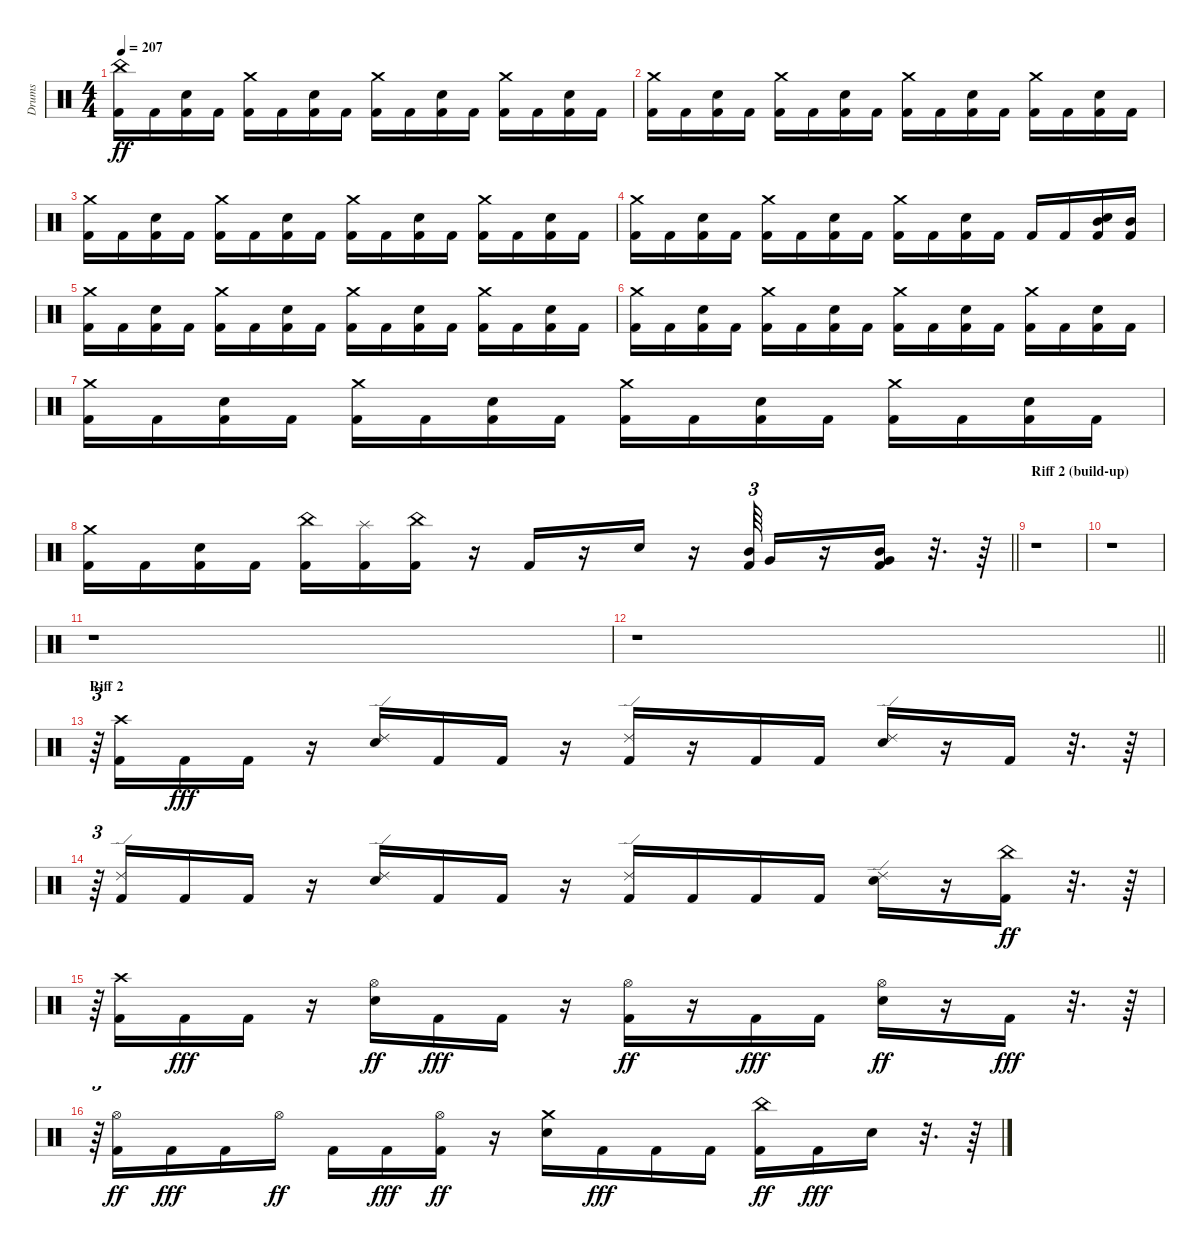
\track ("Drums" "Drums") {instrument percussion}
\staff {score}
\articulation defaults
\ts (4 4)
\tempo 207
\clef neutral
\ks c
("Kick (hit) 2" "China (hit)").16{dy ff} "Kick (hit) 2".16 ("Kick (hit) 2" "Snare (hit) 2").16 "Kick (hit) 2".16 ("Kick (hit) 2" "Crash medium (hit)").16 "Kick (hit) 2".16 ("Kick (hit) 2" "Snare (hit) 2").16 "Kick (hit) 2".16 ("Kick (hit) 2" "Crash medium (hit)").16 "Kick (hit) 2".16 ("Kick (hit) 2" "Snare (hit) 2").16 "Kick (hit) 2".16 ("Kick (hit) 2" "Crash medium (hit)").16 "Kick (hit) 2".16 ("Kick (hit) 2" "Snare (hit) 2").16 "Kick (hit) 2".16 |
("Kick (hit) 2" "Crash medium (hit)").16 "Kick (hit) 2".16 ("Kick (hit) 2" "Snare (hit) 2").16 "Kick (hit) 2".16 ("Kick (hit) 2" "Crash medium (hit)").16 "Kick (hit) 2".16 ("Kick (hit) 2" "Snare (hit) 2").16 "Kick (hit) 2".16 ("Kick (hit) 2" "Crash medium (hit)").16 "Kick (hit) 2".16 ("Kick (hit) 2" "Snare (hit) 2").16 "Kick (hit) 2".16 ("Kick (hit) 2" "Crash medium (hit)").16 "Kick (hit) 2".16 ("Kick (hit) 2" "Snare (hit) 2").16 "Kick (hit) 2".16 |
("Kick (hit) 2" "Crash medium (hit)").16 "Kick (hit) 2".16 ("Kick (hit) 2" "Snare (hit) 2").16 "Kick (hit) 2".16 ("Kick (hit) 2" "Crash medium (hit)").16 "Kick (hit) 2".16 ("Kick (hit) 2" "Snare (hit) 2").16 "Kick (hit) 2".16 ("Kick (hit) 2" "Crash medium (hit)").16 "Kick (hit) 2".16 ("Kick (hit) 2" "Snare (hit) 2").16 "Kick (hit) 2".16 ("Kick (hit) 2" "Crash medium (hit)").16 "Kick (hit) 2".16 ("Kick (hit) 2" "Snare (hit) 2").16 "Kick (hit) 2".16 |
("Kick (hit) 2" "Crash medium (hit)").16 "Kick (hit) 2".16 ("Kick (hit) 2" "Snare (hit) 2").16 "Kick (hit) 2".16 ("Kick (hit) 2" "Crash medium (hit)").16 "Kick (hit) 2".16 ("Kick (hit) 2" "Snare (hit) 2").16 "Kick (hit) 2".16 ("Kick (hit) 2" "Crash medium (hit)").16 "Kick (hit) 2".16 ("Kick (hit) 2" "Snare (hit) 2").16 "Kick (hit) 2".16 "Kick (hit) 2".16 "Kick (hit) 2".16 ("Kick (hit) 2" "Snare (hit) 2" "Mid Tom (hit)").16 ("Kick (hit) 2" "Mid Tom (hit)").16 |
("Kick (hit) 2" "Crash medium (hit)").16 "Kick (hit) 2".16 ("Kick (hit) 2" "Snare (hit) 2").16 "Kick (hit) 2".16 ("Kick (hit) 2" "Crash medium (hit)").16 "Kick (hit) 2".16 ("Kick (hit) 2" "Snare (hit) 2").16 "Kick (hit) 2".16 ("Kick (hit) 2" "Crash medium (hit)").16 "Kick (hit) 2".16 ("Kick (hit) 2" "Snare (hit) 2").16 "Kick (hit) 2".16 ("Kick (hit) 2" "Crash medium (hit)").16 "Kick (hit) 2".16 ("Kick (hit) 2" "Snare (hit) 2").16 "Kick (hit) 2".16 |
("Kick (hit) 2" "Crash medium (hit)").16 "Kick (hit) 2".16 ("Kick (hit) 2" "Snare (hit) 2").16 "Kick (hit) 2".16 ("Kick (hit) 2" "Crash medium (hit)").16 "Kick (hit) 2".16 ("Kick (hit) 2" "Snare (hit) 2").16 "Kick (hit) 2".16 ("Kick (hit) 2" "Crash medium (hit)").16 "Kick (hit) 2".16 ("Kick (hit) 2" "Snare (hit) 2").16 "Kick (hit) 2".16 ("Kick (hit) 2" "Crash medium (hit)").16 "Kick (hit) 2".16 ("Kick (hit) 2" "Snare (hit) 2").16 "Kick (hit) 2".16 |
("Kick (hit) 2" "Crash medium (hit)").16 "Kick (hit) 2".16 ("Kick (hit) 2" "Snare (hit) 2").16 "Kick (hit) 2".16 ("Kick (hit) 2" "Crash medium (hit)").16 "Kick (hit) 2".16 ("Kick (hit) 2" "Snare (hit) 2").16 "Kick (hit) 2".16 ("Kick (hit) 2" "Crash medium (hit)").16 "Kick (hit) 2".16 ("Kick (hit) 2" "Snare (hit) 2").16 "Kick (hit) 2".16 ("Kick (hit) 2" "Crash medium (hit)").16 "Kick (hit) 2".16 ("Kick (hit) 2" "Snare (hit) 2").16 "Kick (hit) 2".16 |
\barLineRight lightlight
("Kick (hit) 2" "Crash medium (hit)").16 "Kick (hit) 2".16 ("Kick (hit) 2" "Snare (hit) 2").16 "Kick (hit) 2".16 ("Kick (hit) 2" "China (hit)").16 ("Kick (hit) 2" "Splash (hit)").16 ("Kick (hit) 2" "China (hit)").16 r.16 "Kick (hit) 2".16 r.16 "Snare (hit) 2".16 r.16 ("Kick (hit) 2" "Mid Tom (hit)").64{tu (3 2)} "Very Low Tom (hit)".16 r.16 ("Kick (hit) 2" "Mid Tom (hit)" "Very Low Tom (hit)").16 r.32{d} r.64 |
\section ("" "Riff 2 (build-up)")
r.1 |
r.1 |
r.1 |
\barLineRight lightlight
r.1 |
\section ("" "Riff 2")
r.64{tu (3 2)} ("Kick (hit) 2" "Crash high (hit)").16 "Kick (hit) 2".16{dy fff} "Kick (hit) 2".16 r.16 ("Snare (hit) 2" "Ride (edge) 2").16 "Kick (hit) 2".16 "Kick (hit) 2".16 r.16 ("Kick (hit) 2" "Ride (edge) 2").16 r.16 "Kick (hit) 2".16 "Kick (hit) 2".16 ("Snare (hit) 2" "Ride (edge) 2").16 r.16 "Kick (hit) 2".16 r.32{d} r.64 |
r.64{tu (3 2)} ("Kick (hit) 2" "Ride (edge) 2").16 "Kick (hit) 2".16 "Kick (hit) 2".16 r.16 ("Snare (hit) 2" "Ride (edge) 2").16 "Kick (hit) 2".16 "Kick (hit) 2".16 r.16 ("Kick (hit) 2" "Ride (edge) 2").16 "Kick (hit) 2".16 "Kick (hit) 2".16 "Kick (hit) 2".16 ("Snare (hit) 2" "Ride (edge) 2").16 r.16 ("Kick (hit) 2" "China (hit)").16{dy ff} r.32{d} r.64 |
r.64{tu (3 2)} ("Kick (hit) 2" "Crash high (hit)").16 "Kick (hit) 2".16{dy fff} "Kick (hit) 2".16 r.16 ("Snare (hit) 2" "Hi-Hat (open)").16{dy ff} "Kick (hit) 2".16{dy fff} "Kick (hit) 2".16 r.16 ("Kick (hit) 2" "Hi-Hat (open)").16{dy ff} r.16 "Kick (hit) 2".16{dy fff} "Kick (hit) 2".16 ("Snare (hit) 2" "Hi-Hat (open)").16{dy ff} r.16 "Kick (hit) 2".16{dy fff} r.32{d} r.64 |
r.64{tu (3 2)} ("Kick (hit) 2" "Hi-Hat (open)").16{dy ff} "Kick (hit) 2".16{dy fff} "Kick (hit) 2".16 "Hi-Hat (open)".16{dy ff} "Kick (hit) 2".16 "Kick (hit) 2".16{dy fff} ("Kick (hit) 2" "Hi-Hat (open)").16{dy ff} r.16 ("Snare (hit) 2" "Crash medium (hit)").16 "Kick (hit) 2".16{dy fff} "Kick (hit) 2".16 "Kick (hit) 2".16 ("Kick (hit) 2" "China (hit)").16{dy ff} "Kick (hit) 2".16{dy fff} "Snare (hit) 2".16 r.32{d} r.64
